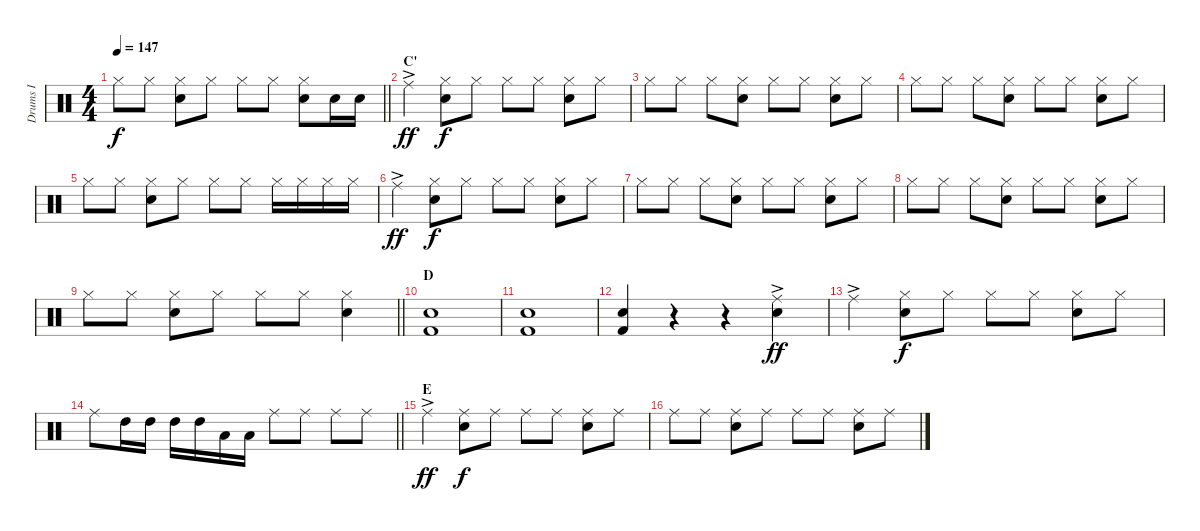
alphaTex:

\track ("Drums I" "Drums I") {instrument percussion}
\staff {score}
\articulation defaults
\ts (4 4)
\tempo 147
\clef neutral
\barLineRight lightlight
\ks c "Hi-Hat (closed)".8{dy f} "Hi-Hat (closed)".8
("Hi-Hat (closed)" "Snare (hit) 2").8 "Hi-Hat (closed)".8 "Hi-Hat (closed)".8 "Hi-Hat (closed)".8 ("Hi-Hat (closed)" "Snare (hit) 2").8 "Snare (hit) 2".16 "Snare (hit) 2".16 |
\section ("" "C'")
"Ride (middle)"{ac}.4{dy ff} ("Hi-Hat (closed)" "Snare (hit) 2").8{dy f} "Hi-Hat (closed)".8 "Hi-Hat (closed)".8 "Hi-Hat (closed)".8 ("Hi-Hat (closed)" "Snare (hit) 2").8 "Hi-Hat (closed)".8 |
"Hi-Hat (closed)".8 "Hi-Hat (closed)".8 "Hi-Hat (closed)".8 ("Hi-Hat (closed)" "Snare (hit) 2").8 "Hi-Hat (closed)".8 "Hi-Hat (closed)".8 ("Hi-Hat (closed)" "Snare (hit) 2").8 "Hi-Hat (closed)".8 |
"Hi-Hat (closed)".8 "Hi-Hat (closed)".8 "Hi-Hat (closed)".8 ("Hi-Hat (closed)" "Snare (hit) 2").8 "Hi-Hat (closed)".8 "Hi-Hat (closed)".8 ("Hi-Hat (closed)" "Snare (hit) 2").8 "Hi-Hat (closed)".8 |
"Hi-Hat (closed)".8 "Hi-Hat (closed)".8 ("Hi-Hat (closed)" "Snare (hit) 2").8 "Hi-Hat (closed)".8 "Hi-Hat (closed)".8 "Hi-Hat (closed)".8 "Hi-Hat (closed)".16 "Hi-Hat (closed)".16 "Hi-Hat (closed)".16 "Hi-Hat (closed)".16 |
"Ride (middle)"{ac}.4{dy ff} ("Hi-Hat (closed)" "Snare (hit) 2").8{dy f} "Hi-Hat (closed)".8 "Hi-Hat (closed)".8 "Hi-Hat (closed)".8 ("Hi-Hat (closed)" "Snare (hit) 2").8 "Hi-Hat (closed)".8 |
"Hi-Hat (closed)".8 "Hi-Hat (closed)".8 "Hi-Hat (closed)".8 ("Hi-Hat (closed)" "Snare (hit) 2").8 "Hi-Hat (closed)".8 "Hi-Hat (closed)".8 ("Hi-Hat (closed)" "Snare (hit) 2").8 "Hi-Hat (closed)".8 |
"Hi-Hat (closed)".8 "Hi-Hat (closed)".8 "Hi-Hat (closed)".8 ("Hi-Hat (closed)" "Snare (hit) 2").8 "Hi-Hat (closed)".8 "Hi-Hat (closed)".8 ("Hi-Hat (closed)" "Snare (hit) 2").8 "Hi-Hat (closed)".8 |
\barLineRight lightlight "Hi-Hat (closed)".8 "Hi-Hat (closed)".8
("Hi-Hat (closed)" "Snare (hit) 2").8 "Hi-Hat (closed)".8 "Hi-Hat (closed)".8 "Hi-Hat (closed)".8 ("Hi-Hat (closed)" "Snare (hit) 2").4 |
\section ("" "D")
("Snare (hit) 2" "Kick (hit) 2").1 |
("Snare (hit) 2" "Kick (hit) 2").1 |
("Snare (hit) 2" "Kick (hit) 2").4 r.4 r.4 ("Ride (middle)"{ac} "Snare (hit) 2").4{dy ff} |
"Ride (middle)"{ac}.4 ("Hi-Hat (closed)" "Snare (hit) 2").8{dy f} "Hi-Hat (closed)".8 "Hi-Hat (closed)".8 "Hi-Hat (closed)".8 ("Hi-Hat (closed)" "Snare (hit) 2").8 "Hi-Hat (closed)".8 |
\barLineRight lightlight "Ride (middle)".8 "High Tom (hit)".16 "High Tom (hit)".16 "High Tom (hit)".16 "High Tom (hit)".16 "Low Tom (hit)".16 "Low Tom (hit)".16 "Ride (middle)".8 "Ride (middle)".8 "Ride (middle)".8 "Ride (middle)".8
|
\section ("" "E")
"Ride (middle)"{ac}.4{dy ff} ("Ride (middle)" "Snare (hit) 2").8{dy f} "Ride (middle)".8 "Ride (middle)".8 "Ride (middle)".8 ("Ride (middle)" "Snare (hit) 2").8 "Ride (middle)".8 |
"Ride (middle)".8 "Ride (middle)".8 ("Ride (middle)" "Snare (hit) 2").8 "Ride (middle)".8 "Ride (middle)".8 "Ride (middle)".8 ("Ride (middle)" "Snare (hit) 2").8 "Ride (middle)".8
